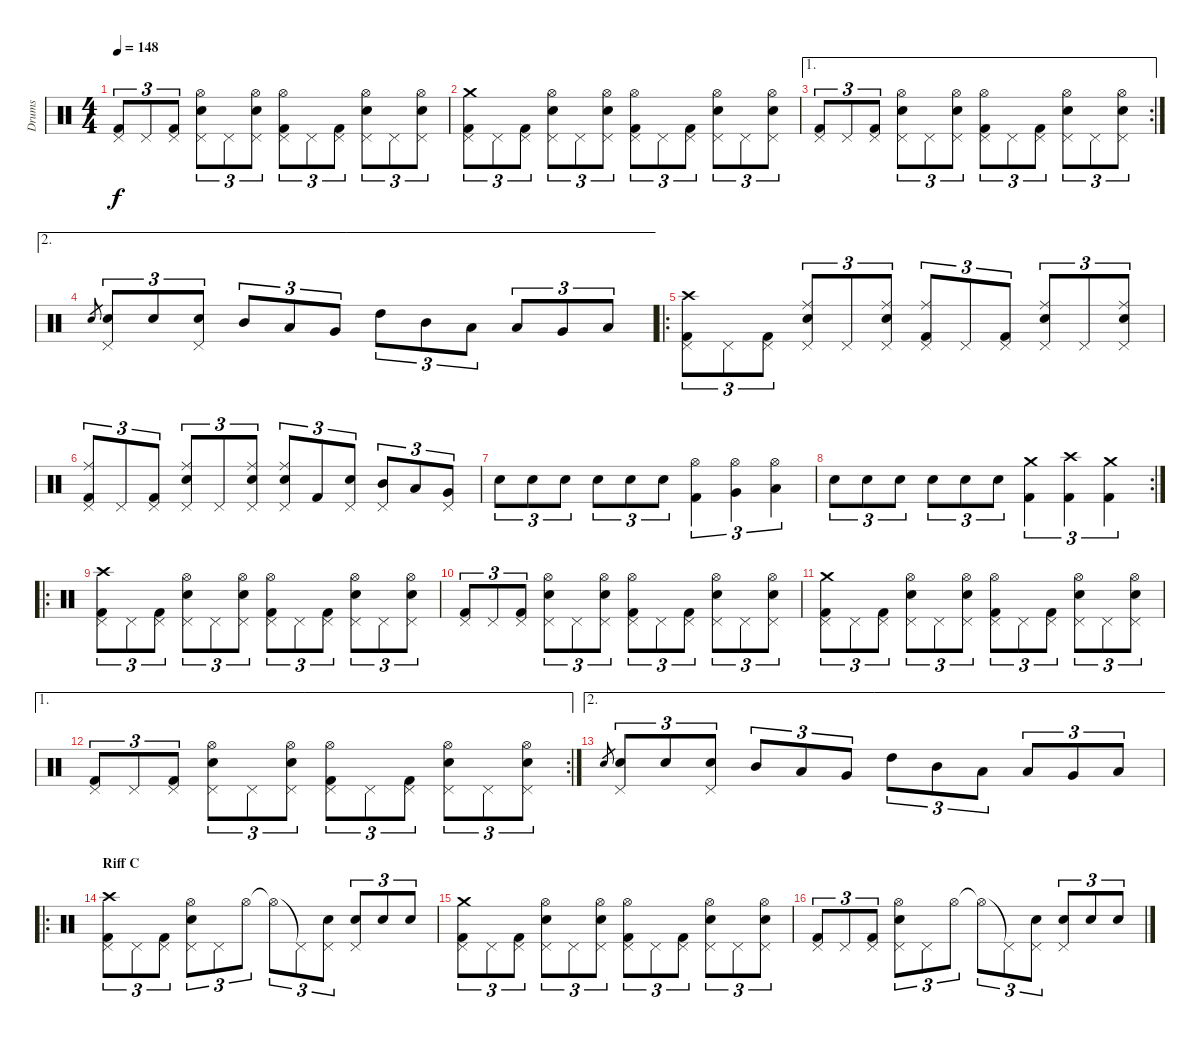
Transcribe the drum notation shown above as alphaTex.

\track ("Drums" "Drums") {instrument percussion}
\staff {score}
\articulation defaults
\ts (4 4)
\tempo 148
\clef neutral
\ks c
("Kick (hit) 2" "Pedal Hi-Hat (hit)").8{tu (3 2) dy f} "Pedal Hi-Hat (hit)".8{tu (3 2)} ("Kick (hit) 2" "Pedal Hi-Hat (hit)").8{tu (3 2)} ("Snare (hit) 2" "Pedal Hi-Hat (hit)" "Hi-Hat (open)").8{tu (3 2)} "Pedal Hi-Hat (hit)".8{tu (3 2)} ("Snare (hit) 2" "Pedal Hi-Hat (hit)" "Hi-Hat (open)").8{tu (3 2)} ("Kick (hit) 2" "Pedal Hi-Hat (hit)" "Hi-Hat (open)").8{tu (3 2)} "Pedal Hi-Hat (hit)".8{tu (3 2)} ("Kick (hit) 2" "Pedal Hi-Hat (hit)").8{tu (3 2)} ("Snare (hit) 2" "Pedal Hi-Hat (hit)" "Hi-Hat (open)").8{tu (3 2)} "Pedal Hi-Hat (hit)".8{tu (3 2)} ("Snare (hit) 2" "Pedal Hi-Hat (hit)" "Hi-Hat (open)").8{tu (3 2)} |
("Kick (hit) 2" "Pedal Hi-Hat (hit)" "Crash medium (hit)").8{tu (3 2)} "Pedal Hi-Hat (hit)".8{tu (3 2)} ("Kick (hit) 2" "Pedal Hi-Hat (hit)").8{tu (3 2)} ("Snare (hit) 2" "Pedal Hi-Hat (hit)" "Hi-Hat (open)").8{tu (3 2)} "Pedal Hi-Hat (hit)".8{tu (3 2)} ("Snare (hit) 2" "Pedal Hi-Hat (hit)" "Hi-Hat (open)").8{tu (3 2)} ("Kick (hit) 2" "Pedal Hi-Hat (hit)" "Hi-Hat (open)").8{tu (3 2)} "Pedal Hi-Hat (hit)".8{tu (3 2)} ("Kick (hit) 2" "Pedal Hi-Hat (hit)").8{tu (3 2)} ("Snare (hit) 2" "Pedal Hi-Hat (hit)" "Hi-Hat (open)").8{tu (3 2)} "Pedal Hi-Hat (hit)".8{tu (3 2)} ("Snare (hit) 2" "Pedal Hi-Hat (hit)" "Hi-Hat (open)").8{tu (3 2)} |
\ae 1
\rc 2
("Kick (hit) 2" "Pedal Hi-Hat (hit)").8{tu (3 2)} "Pedal Hi-Hat (hit)".8{tu (3 2)} ("Kick (hit) 2" "Pedal Hi-Hat (hit)").8{tu (3 2)} ("Snare (hit) 2" "Pedal Hi-Hat (hit)" "Hi-Hat (open)").8{tu (3 2)} "Pedal Hi-Hat (hit)".8{tu (3 2)} ("Snare (hit) 2" "Pedal Hi-Hat (hit)" "Hi-Hat (open)").8{tu (3 2)} ("Kick (hit) 2" "Pedal Hi-Hat (hit)" "Hi-Hat (open)").8{tu (3 2)} "Pedal Hi-Hat (hit)".8{tu (3 2)} ("Kick (hit) 2" "Pedal Hi-Hat (hit)").8{tu (3 2)} ("Snare (hit) 2" "Pedal Hi-Hat (hit)" "Hi-Hat (open)").8{tu (3 2)} "Pedal Hi-Hat (hit)".8{tu (3 2)} ("Snare (hit) 2" "Pedal Hi-Hat (hit)" "Hi-Hat (open)").8{tu (3 2)} |
\ae 2 "Snare (hit) 2".8{gr}
("Snare (hit) 2" "Pedal Hi-Hat (hit)").8{tu (3 2)} "Snare (hit) 2".8{tu (3 2)} ("Snare (hit) 2" "Pedal Hi-Hat (hit)").8{tu (3 2)} "Mid Tom (hit)".8{tu (3 2)} "Low Tom (hit)".8{tu (3 2)} "Very Low Tom (hit)".8{tu (3 2)} "High Tom (hit)".8{tu (3 2)} "Mid Tom (hit)".8{tu (3 2)} "Low Tom (hit)".8{tu (3 2)} "Low Tom (hit)".8{tu (3 2)} "Very Low Tom (hit)".8{tu (3 2)} "Low Floor Tom (hit)".8{tu (3 2)} |
\ro
("Kick (hit) 2" "Pedal Hi-Hat (hit)" "Crash high (hit)").8{tu (3 2)} "Pedal Hi-Hat (hit)".8{tu (3 2)} ("Kick (hit) 2" "Pedal Hi-Hat (hit)").8{tu (3 2)} ("Snare (hit) 2" "Pedal Hi-Hat (hit)" "Ride (middle)").8{tu (3 2)} "Pedal Hi-Hat (hit)".8{tu (3 2)} ("Snare (hit) 2" "Pedal Hi-Hat (hit)" "Ride (middle)").8{tu (3 2)} ("Kick (hit) 2" "Pedal Hi-Hat (hit)" "Ride (middle)").8{tu (3 2)} "Pedal Hi-Hat (hit)".8{tu (3 2)} ("Kick (hit) 2" "Pedal Hi-Hat (hit)").8{tu (3 2)} ("Snare (hit) 2" "Pedal Hi-Hat (hit)" "Ride (middle)").8{tu (3 2)} "Pedal Hi-Hat (hit)".8{tu (3 2)} ("Snare (hit) 2" "Pedal Hi-Hat (hit)" "Ride (middle)").8{tu (3 2)} |
("Kick (hit) 2" "Pedal Hi-Hat (hit)" "Ride (middle)").8{tu (3 2)} "Pedal Hi-Hat (hit)".8{tu (3 2)} ("Kick (hit) 2" "Pedal Hi-Hat (hit)").8{tu (3 2)} ("Snare (hit) 2" "Pedal Hi-Hat (hit)" "Ride (middle)").8{tu (3 2)} "Pedal Hi-Hat (hit)".8{tu (3 2)} ("Snare (hit) 2" "Pedal Hi-Hat (hit)" "Ride (middle)").8{tu (3 2)} ("Snare (hit) 2" "Pedal Hi-Hat (hit)" "Ride (middle)").8{tu (3 2)} "Kick (hit) 2".8{tu (3 2)} ("Snare (hit) 2" "Pedal Hi-Hat (hit)").8{tu (3 2)} ("Mid Tom (hit)" "Pedal Hi-Hat (hit)").8{tu (3 2)} "Low Tom (hit)".8{tu (3 2)} ("Very Low Tom (hit)" "Pedal Hi-Hat (hit)").8{tu (3 2)} |
"Snare (hit) 2".8{tu (3 2)} "Snare (hit) 2".8{tu (3 2)} "Snare (hit) 2".8{tu (3 2)} "Snare (hit) 2".8{tu (3 2)} "Snare (hit) 2".8{tu (3 2)} "Snare (hit) 2".8{tu (3 2)} ("Kick (hit) 2" "Hi-Hat (open)").4{tu (3 2)} ("Very Low Tom (hit)" "Hi-Hat (open)").4{tu (3 2)} ("Low Floor Tom (hit)" "Hi-Hat (open)").4{tu (3 2)} |
\rc 2 "Snare (hit) 2".8{tu (3 2)} "Snare (hit) 2".8{tu (3 2)} "Snare (hit) 2".8{tu (3 2)} "Snare (hit) 2".8{tu (3 2)} "Snare (hit) 2".8{tu (3 2)} "Snare (hit) 2".8{tu (3 2)}
("Kick (hit) 2" "Crash medium (hit)").4{tu (3 2)} ("Kick (hit) 2" "Crash high (hit)").4{tu (3 2)} ("Kick (hit) 2" "Crash medium (hit)").4{tu (3 2)} |
\ro
("Kick (hit) 2" "Pedal Hi-Hat (hit)" "Crash high (hit)").8{tu (3 2)} "Pedal Hi-Hat (hit)".8{tu (3 2)} ("Kick (hit) 2" "Pedal Hi-Hat (hit)").8{tu (3 2)} ("Snare (hit) 2" "Pedal Hi-Hat (hit)" "Hi-Hat (open)").8{tu (3 2)} "Pedal Hi-Hat (hit)".8{tu (3 2)} ("Snare (hit) 2" "Pedal Hi-Hat (hit)" "Hi-Hat (open)").8{tu (3 2)} ("Kick (hit) 2" "Pedal Hi-Hat (hit)" "Hi-Hat (open)").8{tu (3 2)} "Pedal Hi-Hat (hit)".8{tu (3 2)} ("Kick (hit) 2" "Pedal Hi-Hat (hit)").8{tu (3 2)} ("Snare (hit) 2" "Pedal Hi-Hat (hit)" "Hi-Hat (open)").8{tu (3 2)} "Pedal Hi-Hat (hit)".8{tu (3 2)} ("Snare (hit) 2" "Pedal Hi-Hat (hit)" "Hi-Hat (open)").8{tu (3 2)} |
("Kick (hit) 2" "Pedal Hi-Hat (hit)").8{tu (3 2)} "Pedal Hi-Hat (hit)".8{tu (3 2)} ("Kick (hit) 2" "Pedal Hi-Hat (hit)").8{tu (3 2)} ("Snare (hit) 2" "Pedal Hi-Hat (hit)" "Hi-Hat (open)").8{tu (3 2)} "Pedal Hi-Hat (hit)".8{tu (3 2)} ("Snare (hit) 2" "Pedal Hi-Hat (hit)" "Hi-Hat (open)").8{tu (3 2)} ("Kick (hit) 2" "Pedal Hi-Hat (hit)" "Hi-Hat (open)").8{tu (3 2)} "Pedal Hi-Hat (hit)".8{tu (3 2)} ("Kick (hit) 2" "Pedal Hi-Hat (hit)").8{tu (3 2)} ("Snare (hit) 2" "Pedal Hi-Hat (hit)" "Hi-Hat (open)").8{tu (3 2)} "Pedal Hi-Hat (hit)".8{tu (3 2)} ("Snare (hit) 2" "Pedal Hi-Hat (hit)" "Hi-Hat (open)").8{tu (3 2)} |
("Kick (hit) 2" "Pedal Hi-Hat (hit)" "Crash medium (hit)").8{tu (3 2)} "Pedal Hi-Hat (hit)".8{tu (3 2)} ("Kick (hit) 2" "Pedal Hi-Hat (hit)").8{tu (3 2)} ("Snare (hit) 2" "Pedal Hi-Hat (hit)" "Hi-Hat (open)").8{tu (3 2)} "Pedal Hi-Hat (hit)".8{tu (3 2)} ("Snare (hit) 2" "Pedal Hi-Hat (hit)" "Hi-Hat (open)").8{tu (3 2)} ("Kick (hit) 2" "Pedal Hi-Hat (hit)" "Hi-Hat (open)").8{tu (3 2)} "Pedal Hi-Hat (hit)".8{tu (3 2)} ("Kick (hit) 2" "Pedal Hi-Hat (hit)").8{tu (3 2)} ("Snare (hit) 2" "Pedal Hi-Hat (hit)" "Hi-Hat (open)").8{tu (3 2)} "Pedal Hi-Hat (hit)".8{tu (3 2)} ("Snare (hit) 2" "Pedal Hi-Hat (hit)" "Hi-Hat (open)").8{tu (3 2)} |
\ae 1
\rc 2
("Kick (hit) 2" "Pedal Hi-Hat (hit)").8{tu (3 2)} "Pedal Hi-Hat (hit)".8{tu (3 2)} ("Kick (hit) 2" "Pedal Hi-Hat (hit)").8{tu (3 2)} ("Snare (hit) 2" "Pedal Hi-Hat (hit)" "Hi-Hat (open)").8{tu (3 2)} "Pedal Hi-Hat (hit)".8{tu (3 2)} ("Snare (hit) 2" "Pedal Hi-Hat (hit)" "Hi-Hat (open)").8{tu (3 2)} ("Kick (hit) 2" "Pedal Hi-Hat (hit)" "Hi-Hat (open)").8{tu (3 2)} "Pedal Hi-Hat (hit)".8{tu (3 2)} ("Kick (hit) 2" "Pedal Hi-Hat (hit)").8{tu (3 2)} ("Snare (hit) 2" "Pedal Hi-Hat (hit)" "Hi-Hat (open)").8{tu (3 2)} "Pedal Hi-Hat (hit)".8{tu (3 2)} ("Snare (hit) 2" "Pedal Hi-Hat (hit)" "Hi-Hat (open)").8{tu (3 2)} |
\ae 2 "Snare (hit) 2".8{gr}
("Snare (hit) 2" "Pedal Hi-Hat (hit)").8{tu (3 2)} "Snare (hit) 2".8{tu (3 2)} ("Snare (hit) 2" "Pedal Hi-Hat (hit)").8{tu (3 2)} "Mid Tom (hit)".8{tu (3 2)} "Low Tom (hit)".8{tu (3 2)} "Very Low Tom (hit)".8{tu (3 2)} "High Tom (hit)".8{tu (3 2)} "Mid Tom (hit)".8{tu (3 2)} "Low Tom (hit)".8{tu (3 2)} "Low Tom (hit)".8{tu (3 2)} "Very Low Tom (hit)".8{tu (3 2)} "Low Floor Tom (hit)".8{tu (3 2)} |
\ro
\section ("" "Riff C")
("Kick (hit) 2" "Pedal Hi-Hat (hit)" "Crash high (hit)").8{tu (3 2)} "Pedal Hi-Hat (hit)".8{tu (3 2)} ("Kick (hit) 2" "Pedal Hi-Hat (hit)").8{tu (3 2)} ("Snare (hit) 2" "Pedal Hi-Hat (hit)" "Hi-Hat (open)").8{tu (3 2)} "Pedal Hi-Hat (hit)".8{tu (3 2)} "Hi-Hat (open)".8{tu (3 2)} "Hi-Hat (open)"{t}.8{tu (3 2)} "Pedal Hi-Hat (hit)"{t}.8{tu (3 2)} ("Snare (hit) 2" "Pedal Hi-Hat (hit)").8{tu (3 2)} ("Snare (hit) 2" "Pedal Hi-Hat (hit)").8{tu (3 2)} "Snare (hit) 2".8{tu (3 2)} "Snare (hit) 2".8{tu (3 2)} |
("Kick (hit) 2" "Pedal Hi-Hat (hit)" "Crash medium (hit)").8{tu (3 2)} "Pedal Hi-Hat (hit)".8{tu (3 2)} ("Kick (hit) 2" "Pedal Hi-Hat (hit)").8{tu (3 2)} ("Snare (hit) 2" "Pedal Hi-Hat (hit)" "Hi-Hat (open)").8{tu (3 2)} "Pedal Hi-Hat (hit)".8{tu (3 2)} ("Snare (hit) 2" "Pedal Hi-Hat (hit)" "Hi-Hat (open)").8{tu (3 2)} ("Kick (hit) 2" "Pedal Hi-Hat (hit)" "Hi-Hat (open)").8{tu (3 2)} "Pedal Hi-Hat (hit)".8{tu (3 2)} ("Kick (hit) 2" "Pedal Hi-Hat (hit)").8{tu (3 2)} ("Snare (hit) 2" "Pedal Hi-Hat (hit)" "Hi-Hat (open)").8{tu (3 2)} "Pedal Hi-Hat (hit)".8{tu (3 2)} ("Snare (hit) 2" "Pedal Hi-Hat (hit)" "Hi-Hat (open)").8{tu (3 2)} |
("Kick (hit) 2" "Pedal Hi-Hat (hit)").8{tu (3 2)} "Pedal Hi-Hat (hit)".8{tu (3 2)} ("Kick (hit) 2" "Pedal Hi-Hat (hit)").8{tu (3 2)} ("Snare (hit) 2" "Pedal Hi-Hat (hit)" "Hi-Hat (open)").8{tu (3 2)} "Pedal Hi-Hat (hit)".8{tu (3 2)} "Hi-Hat (open)".8{tu (3 2)} "Hi-Hat (open)"{t}.8{tu (3 2)} "Pedal Hi-Hat (hit)"{t}.8{tu (3 2)} ("Snare (hit) 2" "Pedal Hi-Hat (hit)").8{tu (3 2)} ("Snare (hit) 2" "Pedal Hi-Hat (hit)").8{tu (3 2)} "Snare (hit) 2".8{tu (3 2)} "Snare (hit) 2".8{tu (3 2)}
